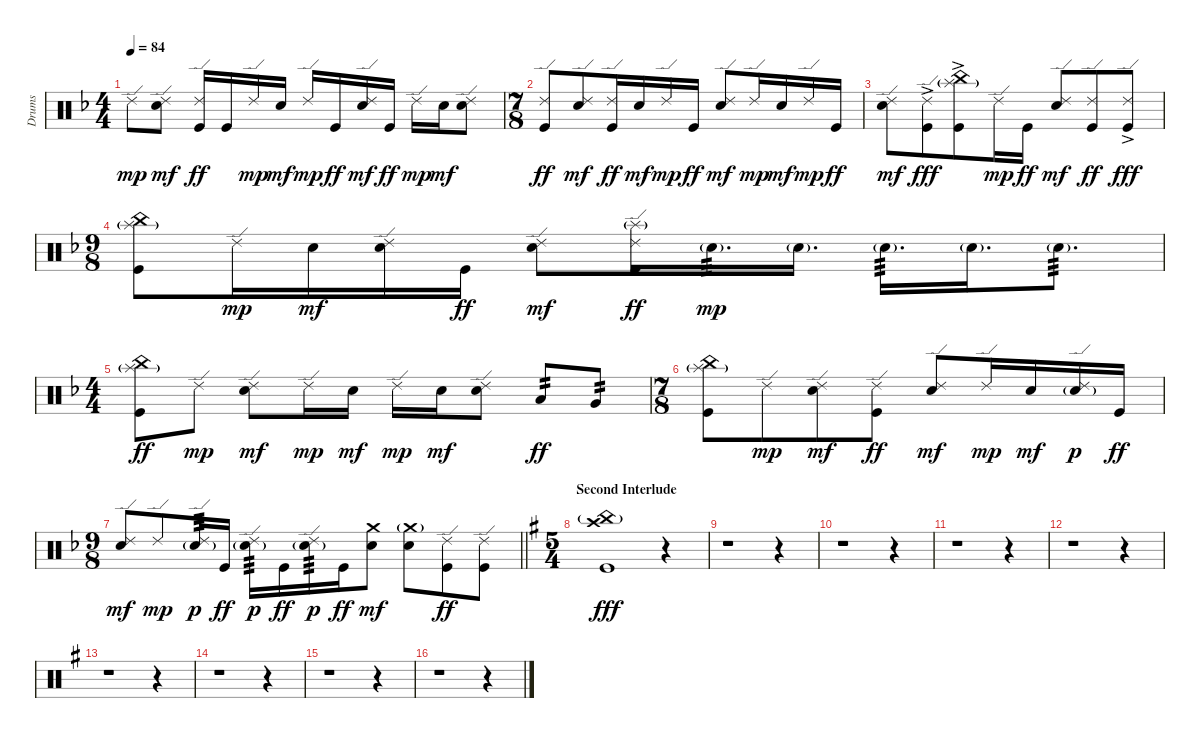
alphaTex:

\track ("Drums" "Drums") {instrument percussion}
\staff {score}
\articulation defaults
\ts (4 4)
\tempo 84
\clef neutral
\ks dminor "Ride (edge) 2".8{dy mp}
("Ride (edge) 2" "Electric Snare (hit)").8{dy mf} ("Ride (edge) 2" "Kick (hit)").16{dy ff} "Kick (hit)".16 "Ride (edge) 2".16{dy mp} "Electric Snare (hit)".16{dy mf} "Ride (edge) 2".16{dy mp} "Kick (hit)".16{dy ff} ("Ride (edge) 2" "Electric Snare (hit)").16{dy mf} "Kick (hit)".16{dy ff} "Ride (edge) 2".16{dy mp} "Electric Snare (hit)".16{dy mf} ("Ride (edge) 2" "Electric Snare (hit)").8 |
\ts (7 8)
("Ride (edge) 2" "Kick (hit)").8{dy ff} ("Ride (edge) 2" "Electric Snare (hit)").8{dy mf} ("Ride (edge) 2" "Kick (hit)").16{dy ff} "Electric Snare (hit)".16{dy mf} "Ride (edge) 2".16{dy mp} "Kick (hit)".16{dy ff} ("Ride (edge) 2" "Electric Snare (hit)").8{dy mf} "Ride (edge) 2".16{dy mp} "Electric Snare (hit)".16{dy mf} "Ride (edge) 2".16{dy mp} "Kick (hit)".16{dy ff} |
("Ride (edge) 2" "Electric Snare (hit)").8{dy mf} ("Ride (edge) 2"{ac} "Kick (hit)"{ac}).8{dy fff} ("China (hit)" "Splash (hit)"{g} "Kick (hit)"{ac}).8 "Ride (edge) 2".16{dy mp} "Kick (hit)".16{dy ff} ("Ride (edge) 2" "Electric Snare (hit)").8{dy mf} ("Ride (edge) 2" "Kick (hit)").8{dy ff} ("Ride (edge) 2"{ac} "Kick (hit)"{ac}).8{dy fff} |
\ts (9 8)
("China (hit)" "Splash (hit)"{g} "Kick (hit)").8 "Ride (edge) 2".16{dy mp} "Electric Snare (hit)".16{dy mf} ("Ride (edge) 2" "Electric Snare (hit)").16 "Kick (hit)".16{dy ff} ("Ride (edge) 2" "Electric Snare (hit)").8{dy mf} ("Ride (edge) 2" "Splash (hit)"{g} "Kick (hit)").16{dy ff} "Electric Snare (hit)"{g}.16{d tp 3 dy mp} "Electric Snare (hit)"{g}.16{d} "Electric Snare (hit)"{g}.16{d tp 3} "Electric Snare (hit)"{g}.16{d} "Electric Snare (hit)"{g}.8{d tp 3} |
\ts (4 4)
("China (hit)" "Splash (hit)"{g} "Kick (hit)").8{dy ff} "Ride (edge) 2".8{dy mp} ("Ride (edge) 2" "Electric Snare (hit)").8{dy mf} "Ride (edge) 2".16{dy mp} "Electric Snare (hit)".16{dy mf} "Ride (edge) 2".16{dy mp} "Electric Snare (hit)".16{dy mf} ("Ride (edge) 2" "Electric Snare (hit)").8 "Low Tom (hit)".8{tp 2 dy ff} "Very Low Tom (hit)".8{tp 2} |
\ts (7 8)
("China (hit)" "Splash (hit)"{g} "Kick (hit)").8 "Ride (edge) 2".8{dy mp} ("Ride (edge) 2" "Electric Snare (hit)").8{dy mf} ("Ride (edge) 2" "Kick (hit)").8{dy ff} ("Ride (edge) 2" "Electric Snare (hit)").8{dy mf} "Ride (edge) 2".16{dy mp} "Electric Snare (hit)".16{dy mf} ("Ride (edge) 2" "Electric Snare (hit)"{g}).16{dy p} "Kick (hit)".16{dy ff} |
\ts (9 8)
\barLineRight lightlight
("Ride (edge) 2" "Electric Snare (hit)").8{dy mf} "Ride (edge) 2".8{dy mp} ("Ride (edge) 2" "Electric Snare (hit)"{g}).16{tp 3 dy p} "Kick (hit)".16{dy ff} ("Ride (edge) 2" "Electric Snare (hit)"{g}).16{tp 3 dy p} "Kick (hit)".16{dy ff} ("Ride (edge) 2" "Electric Snare (hit)"{g}).16{tp 3 dy p} "Kick (hit)".16{dy ff} ("Crash medium (hit)" "Electric Snare (hit)").8{dy mf} ("Crash medium (hit)"{g} "Electric Snare (hit)").8 ("Ride (edge) 2" "Kick (hit)").8{dy ff} ("Ride (edge) 2" "Kick (hit)").8 |
\ts (5 4)
\section ("" "Second Interlude")
\ks eminor
("Crash high (hit)" "China (hit)"{g} "Kick (hit)").1{dy fff volume 13} r.4 |
r.1 r.4 |
r.1 r.4 |
r.1 r.4 |
r.1 r.4 |
r.1 r.4 |
r.1 r.4 |
r.1 r.4 |
r.1 r.4
